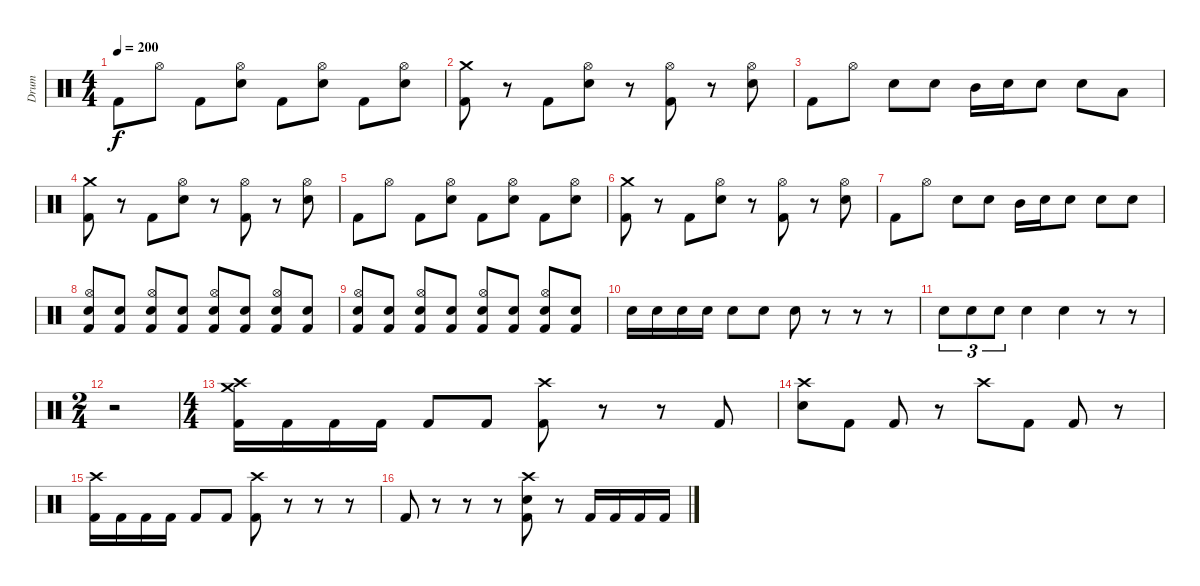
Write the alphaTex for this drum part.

\track ("Drum" "Drum") {instrument percussion}
\staff {score}
\articulation defaults
\ts (4 4)
\tempo 200
\clef neutral
\ks c "Kick (hit) 2".8{dy f} "Hi-Hat (open)".8 "Kick (hit) 2".8
("Hi-Hat (open)" "Electric Snare (hit)").8 "Kick (hit) 2".8 ("Hi-Hat (open)" "Electric Snare (hit)").8 "Kick (hit) 2".8 ("Hi-Hat (open)" "Electric Snare (hit)").8 |
("Crash medium (hit)" "Kick (hit) 2").8 r.8 "Kick (hit) 2".8 ("Hi-Hat (open)" "Electric Snare (hit)").8 r.8 ("Hi-Hat (open)" "Kick (hit) 2").8 r.8 ("Hi-Hat (open)" "Electric Snare (hit)").8 |
"Kick (hit) 2".8 "Hi-Hat (open)".8 "Electric Snare (hit)".8 "Electric Snare (hit)".8 "Mid Tom (hit)".16 "Electric Snare (hit)".16 "Electric Snare (hit)".8 "Electric Snare (hit)".8 "Low Tom (hit)".8 |
("Crash medium (hit)" "Kick (hit) 2").8 r.8 "Kick (hit) 2".8 ("Hi-Hat (open)" "Electric Snare (hit)").8 r.8 ("Hi-Hat (open)" "Kick (hit) 2").8 r.8 ("Hi-Hat (open)" "Electric Snare (hit)").8 |
"Kick (hit) 2".8 "Hi-Hat (open)".8 "Kick (hit) 2".8 ("Hi-Hat (open)" "Electric Snare (hit)").8 "Kick (hit) 2".8 ("Hi-Hat (open)" "Electric Snare (hit)").8 "Kick (hit) 2".8 ("Hi-Hat (open)" "Electric Snare (hit)").8 |
("Crash medium (hit)" "Kick (hit) 2").8 r.8 "Kick (hit) 2".8 ("Hi-Hat (open)" "Electric Snare (hit)").8 r.8 ("Hi-Hat (open)" "Kick (hit) 2").8 r.8 ("Hi-Hat (open)" "Electric Snare (hit)").8 |
"Kick (hit) 2".8 "Hi-Hat (open)".8 "Electric Snare (hit)".8 "Electric Snare (hit)".8 "Mid Tom (hit)".16 "Electric Snare (hit)".16 "Electric Snare (hit)".8 "Electric Snare (hit)".8 "Electric Snare (hit)".8 |
("Hi-Hat (open)" "Electric Snare (hit)" "Kick (hit) 2").8 ("Electric Snare (hit)" "Kick (hit) 2").8 ("Hi-Hat (open)" "Electric Snare (hit)" "Kick (hit) 2").8 ("Electric Snare (hit)" "Kick (hit) 2").8 ("Hi-Hat (open)" "Electric Snare (hit)" "Kick (hit) 2").8 ("Electric Snare (hit)" "Kick (hit) 2").8 ("Hi-Hat (open)" "Electric Snare (hit)" "Kick (hit) 2").8 ("Electric Snare (hit)" "Kick (hit) 2").8 |
("Hi-Hat (open)" "Electric Snare (hit)" "Kick (hit) 2").8 ("Electric Snare (hit)" "Kick (hit) 2").8 ("Hi-Hat (open)" "Electric Snare (hit)" "Kick (hit) 2").8 ("Electric Snare (hit)" "Kick (hit) 2").8 ("Hi-Hat (open)" "Electric Snare (hit)" "Kick (hit) 2").8 ("Electric Snare (hit)" "Kick (hit) 2").8 ("Hi-Hat (open)" "Electric Snare (hit)" "Kick (hit) 2").8 ("Electric Snare (hit)" "Kick (hit) 2").8 |
"Electric Snare (hit)".16 "Electric Snare (hit)".16 "Electric Snare (hit)".16 "Electric Snare (hit)".16 "Electric Snare (hit)".8 "Electric Snare (hit)".8 "Electric Snare (hit)".8 r.8 r.8 r.8 |
"Electric Snare (hit)".8{tu (3 2)} "Electric Snare (hit)".8{tu (3 2)} "Electric Snare (hit)".8{tu (3 2)} "Electric Snare (hit)".4 "Electric Snare (hit)".4 r.8 r.8 |
\ts (2 4)
r.2 |
\ts (4 4)
("Crash medium (hit)" "Crash high (hit)" "Kick (hit) 2").16 "Kick (hit) 2".16 "Kick (hit) 2".16 "Kick (hit) 2".16 "Kick (hit) 2".8 "Kick (hit) 2".8 ("Crash high (hit)" "Kick (hit) 2").8 r.8 r.8 "Kick (hit) 2".8 |
("Crash high (hit)" "Electric Snare (hit)").8 "Kick (hit) 2".8 "Kick (hit) 2".8 r.8 "Crash high (hit)".8 "Kick (hit) 2".8 "Kick (hit) 2".8 r.8 |
("Crash high (hit)" "Kick (hit) 2").16 "Kick (hit) 2".16 "Kick (hit) 2".16 "Kick (hit) 2".16 "Kick (hit) 2".8 "Kick (hit) 2".8 ("Crash high (hit)" "Kick (hit) 2").8 r.8 r.8 r.8 |
"Kick (hit) 2".8 r.8 r.8 r.8 ("Crash high (hit)" "Electric Snare (hit)" "Kick (hit) 2").8 r.8 "Kick (hit) 2".16 "Kick (hit) 2".16 "Kick (hit) 2".16 "Kick (hit) 2".16
